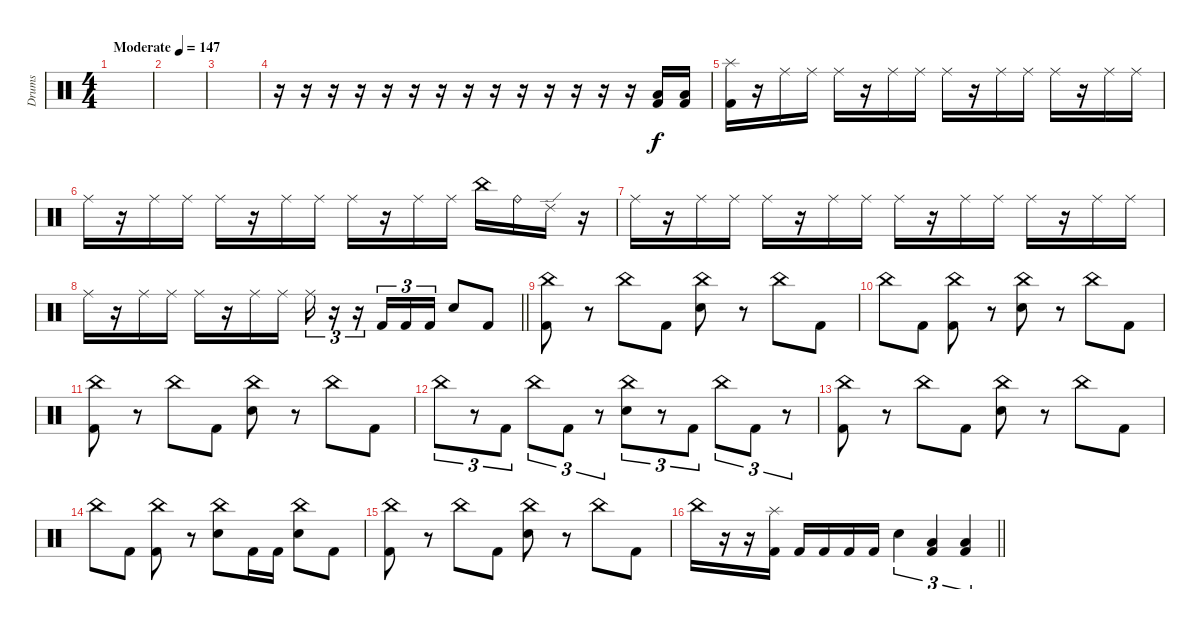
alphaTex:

\track ("Drums" "Drums") {instrument percussion}
\staff {score}
\articulation defaults
\ts (4 4)
\tempo (147 "Moderate")
\clef neutral
\ks c
|
|
|
r.16 r.16 r.16 r.16 r.16 r.16 r.16 r.16 r.16 r.16 r.16 r.16 r.16 r.16 ("Low Floor Tom (hit)" "Kick (hit) 2").16 ("Low Floor Tom (hit)" "Kick (hit) 2").16 |
("Splash (hit)" "Kick (hit) 2").16 r.16 "Ride (middle)".16 "Ride (middle)".16 "Ride (middle)".16 r.16 "Ride (middle)".16 "Ride (middle)".16 "Ride (middle)".16 r.16 "Ride (middle)".16 "Ride (middle)".16 "Ride (middle)".16 r.16 "Ride (middle)".16 "Ride (middle)".16 |
"Ride (middle)".16 r.16 "Ride (middle)".16 "Ride (middle)".16 "Ride (middle)".16 r.16 "Ride (middle)".16 "Ride (middle)".16 "Ride (middle)".16 r.16 "Ride (middle)".16 "Ride (middle)".16 "China (hit)".16 "Ride (bell)".16 "Ride (edge) 2".16 r.16 |
"Ride (middle)".16 r.16 "Ride (middle)".16 "Ride (middle)".16 "Ride (middle)".16 r.16 "Ride (middle)".16 "Ride (middle)".16 "Ride (middle)".16 r.16 "Ride (middle)".16 "Ride (middle)".16 "Ride (middle)".16 r.16 "Ride (middle)".16 "Ride (middle)".16 |
\barLineRight lightlight "Ride (middle)".16
r.16 "Ride (middle)".16 "Ride (middle)".16 "Ride (middle)".16 r.16 "Ride (middle)".16 "Ride (middle)".16 "Ride (middle)".16{tu (3 2)} r.16{tu (3 2)} r.16{tu (3 2)} "Kick (hit) 2".16{tu (3 2)} "Kick (hit) 2".16{tu (3 2)} "Kick (hit) 2".16{tu (3 2)} "Electric Snare (hit)".8 "Kick (hit) 2".8 |
\section ("" "")
("China (hit)" "Kick (hit) 2").8 r.8 "China (hit)".8 "Kick (hit) 2".8 ("China (hit)" "Electric Snare (hit)").8 r.8 "China (hit)".8 "Kick (hit) 2".8 |
"China (hit)".8 "Kick (hit) 2".8 ("China (hit)" "Kick (hit) 2").8 r.8 ("China (hit)" "Electric Snare (hit)").8 r.8 "China (hit)".8 "Kick (hit) 2".8 |
("China (hit)" "Kick (hit) 2").8 r.8 "China (hit)".8 "Kick (hit) 2".8 ("China (hit)" "Electric Snare (hit)").8 r.8 "China (hit)".8 "Kick (hit) 2".8 |
"China (hit)".8{tu (3 2)} r.8{tu (3 2)} "Kick (hit) 2".8{tu (3 2)} "China (hit)".8{tu (3 2)} "Kick (hit) 2".8{tu (3 2)} r.8{tu (3 2)} ("China (hit)" "Electric Snare (hit)").8{tu (3 2)} r.8{tu (3 2)} "Kick (hit) 2".8{tu (3 2)} "China (hit)".8{tu (3 2)} "Kick (hit) 2".8{tu (3 2)} r.8{tu (3 2)} |
("China (hit)" "Kick (hit) 2").8 r.8 "China (hit)".8 "Kick (hit) 2".8 ("China (hit)" "Electric Snare (hit)").8 r.8 "China (hit)".8 "Kick (hit) 2".8 |
"China (hit)".8 "Kick (hit) 2".8 ("China (hit)" "Kick (hit) 2").8 r.8 ("China (hit)" "Electric Snare (hit)").8 "Kick (hit) 2".16 "Kick (hit) 2".16 ("China (hit)" "Electric Snare (hit)").8 "Kick (hit) 2".8 |
("China (hit)" "Kick (hit) 2").8 r.8 "China (hit)".8 "Kick (hit) 2".8 ("China (hit)" "Electric Snare (hit)").8 r.8 "China (hit)".8 "Kick (hit) 2".8 |
\barLineRight lightlight "China (hit)".16
r.16 r.16 ("Splash (hit)" "Kick (hit) 2").16 "Kick (hit) 2".16 "Kick (hit) 2".16 "Kick (hit) 2".16 "Kick (hit) 2".16 "Electric Snare (hit)".4{tu (3 2)} ("Kick (hit) 2" "Low Floor Tom (hit)").4{tu (3 2)} ("Kick (hit) 2" "Low Floor Tom (hit)").4{tu (3 2)}
